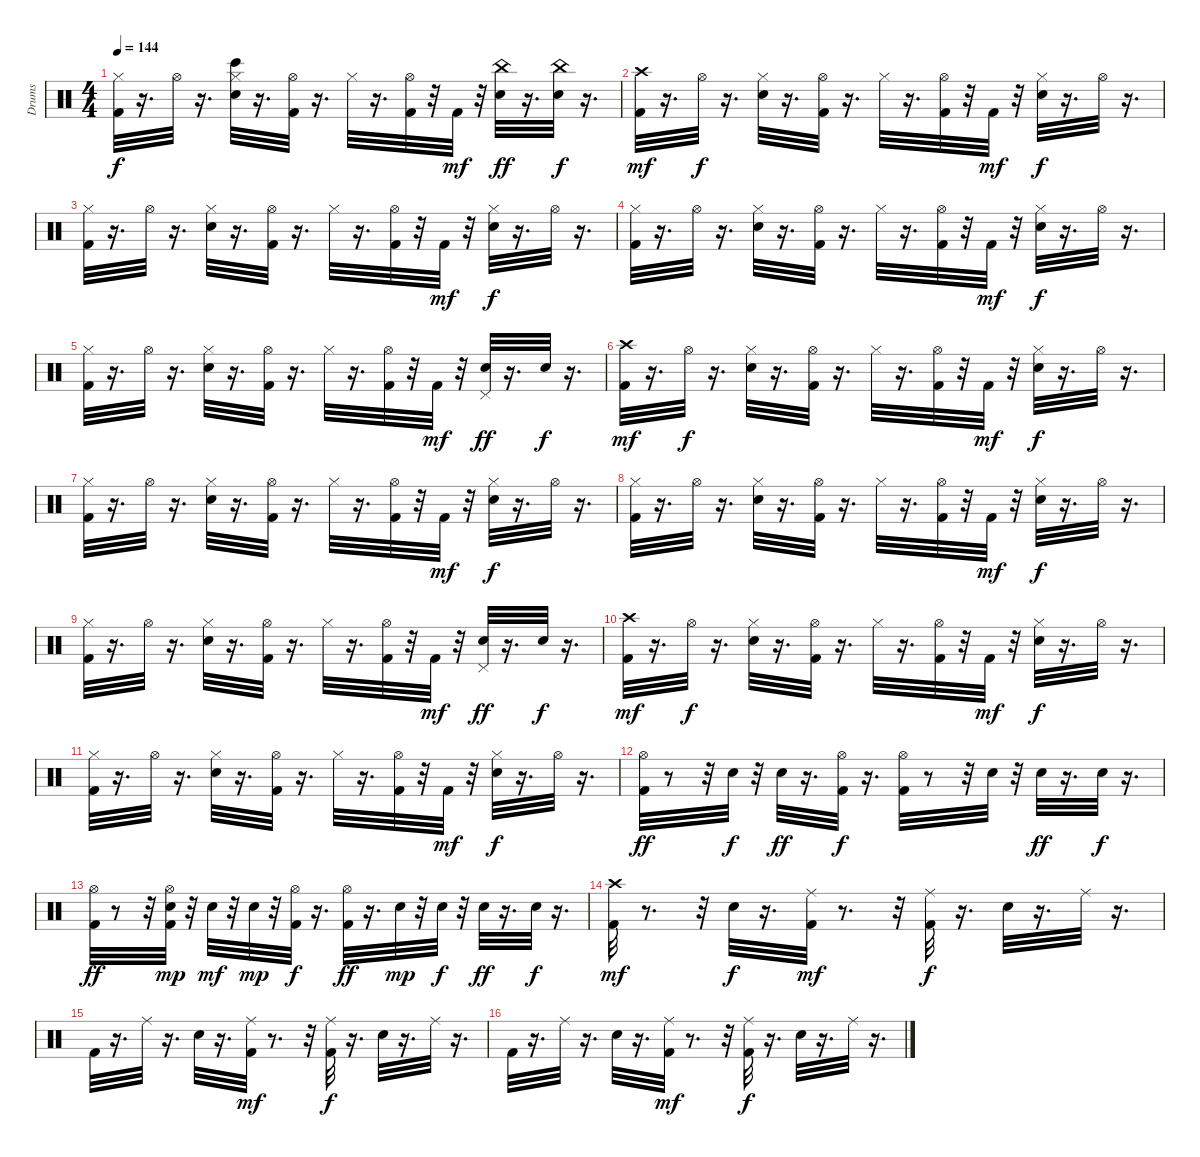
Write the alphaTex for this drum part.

\track ("Drums" "Drums") {instrument percussion}
\staff {score}
\articulation defaults
\ts (4 4)
\tempo 144
\clef neutral
\ks c
("Hi-Hat (closed)" "Kick (hit) 2").32{dy f} r.16{d} "Hi-Hat (open)".32 r.16{d} ("Bongo High (hit)" "Hi-Hat (closed)" "Snare (hit) 2").32 r.16{d} ("Hi-Hat (open)" "Kick (hit) 2").32 r.16{d} "Hi-Hat (closed)".32 r.16{d} ("Hi-Hat (open)" "Kick (hit) 2").32 r.32 "Kick (hit) 2".32{dy mf} r.32 ("China (hit)" "Snare (hit) 2").32{dy ff} r.16{d} ("China (hit)" "Snare (hit) 2").32{dy f} r.16{d} |
("Crash high (hit)" "Kick (hit) 2").32{dy mf} r.16{d} "Hi-Hat (open)".32{dy f} r.16{d} ("Hi-Hat (closed)" "Snare (hit) 2").32 r.16{d} ("Hi-Hat (open)" "Kick (hit) 2").32 r.16{d} "Hi-Hat (closed)".32 r.16{d} ("Kick (hit) 2" "Hi-Hat (open)").32 r.32 "Kick (hit) 2".32{dy mf} r.32 ("Hi-Hat (closed)" "Snare (hit) 2").32{dy f} r.16{d} "Hi-Hat (open)".32 r.16{d} |
("Kick (hit) 2" "Hi-Hat (closed)").32 r.16{d} "Hi-Hat (open)".32 r.16{d} ("Hi-Hat (closed)" "Snare (hit) 2").32 r.16{d} ("Kick (hit) 2" "Hi-Hat (open)").32 r.16{d} "Hi-Hat (closed)".32 r.16{d} ("Kick (hit) 2" "Hi-Hat (open)").32 r.32 "Kick (hit) 2".32{dy mf} r.32 ("Hi-Hat (closed)" "Snare (hit) 2").32{dy f} r.16{d} "Hi-Hat (open)".32 r.16{d} |
("Hi-Hat (closed)" "Kick (hit) 2").32 r.16{d} "Hi-Hat (open)".32 r.16{d} ("Hi-Hat (closed)" "Snare (hit) 2").32 r.16{d} ("Hi-Hat (open)" "Kick (hit) 2").32 r.16{d} "Hi-Hat (closed)".32 r.16{d} ("Kick (hit) 2" "Hi-Hat (open)").32 r.32 "Kick (hit) 2".32{dy mf} r.32 ("Snare (hit) 2" "Hi-Hat (closed)").32{dy f} r.16{d} "Hi-Hat (open)".32 r.16{d} |
("Hi-Hat (closed)" "Kick (hit) 2").32 r.16{d} "Hi-Hat (open)".32 r.16{d} ("Hi-Hat (closed)" "Snare (hit) 2").32 r.16{d} ("Hi-Hat (open)" "Kick (hit) 2").32 r.16{d} "Hi-Hat (closed)".32 r.16{d} ("Hi-Hat (open)" "Kick (hit) 2").32 r.32 "Kick (hit) 2".32{dy mf} r.32 ("Pedal Hi-Hat (hit)" "Snare (hit) 2").32{dy ff} r.16{d} "Snare (hit) 2".32{dy f} r.16{d} |
("Crash high (hit)" "Kick (hit) 2").32{dy mf} r.16{d} "Hi-Hat (open)".32{dy f} r.16{d} ("Hi-Hat (closed)" "Snare (hit) 2").32 r.16{d} ("Hi-Hat (open)" "Kick (hit) 2").32 r.16{d} "Hi-Hat (closed)".32 r.16{d} ("Kick (hit) 2" "Hi-Hat (open)").32 r.32 "Kick (hit) 2".32{dy mf} r.32 ("Hi-Hat (closed)" "Snare (hit) 2").32{dy f} r.16{d} "Hi-Hat (open)".32 r.16{d} |
("Kick (hit) 2" "Hi-Hat (closed)").32 r.16{d} "Hi-Hat (open)".32 r.16{d} ("Hi-Hat (closed)" "Snare (hit) 2").32 r.16{d} ("Kick (hit) 2" "Hi-Hat (open)").32 r.16{d} "Hi-Hat (closed)".32 r.16{d} ("Kick (hit) 2" "Hi-Hat (open)").32 r.32 "Kick (hit) 2".32{dy mf} r.32 ("Hi-Hat (closed)" "Snare (hit) 2").32{dy f} r.16{d} "Hi-Hat (open)".32 r.16{d} |
("Hi-Hat (closed)" "Kick (hit) 2").32 r.16{d} "Hi-Hat (open)".32 r.16{d} ("Hi-Hat (closed)" "Snare (hit) 2").32 r.16{d} ("Hi-Hat (open)" "Kick (hit) 2").32 r.16{d} "Hi-Hat (closed)".32 r.16{d} ("Kick (hit) 2" "Hi-Hat (open)").32 r.32 "Kick (hit) 2".32{dy mf} r.32 ("Snare (hit) 2" "Hi-Hat (closed)").32{dy f} r.16{d} "Hi-Hat (open)".32 r.16{d} |
("Hi-Hat (closed)" "Kick (hit) 2").32 r.16{d} "Hi-Hat (open)".32 r.16{d} ("Hi-Hat (closed)" "Snare (hit) 2").32 r.16{d} ("Hi-Hat (open)" "Kick (hit) 2").32 r.16{d} "Hi-Hat (closed)".32 r.16{d} ("Hi-Hat (open)" "Kick (hit) 2").32 r.32 "Kick (hit) 2".32{dy mf} r.32 ("Pedal Hi-Hat (hit)" "Snare (hit) 2").32{dy ff} r.16{d} "Snare (hit) 2".32{dy f} r.16{d} |
("Crash high (hit)" "Kick (hit) 2").32{dy mf} r.16{d} "Hi-Hat (open)".32{dy f} r.16{d} ("Hi-Hat (closed)" "Snare (hit) 2").32 r.16{d} ("Hi-Hat (open)" "Kick (hit) 2").32 r.16{d} "Hi-Hat (closed)".32 r.16{d} ("Kick (hit) 2" "Hi-Hat (open)").32 r.32 "Kick (hit) 2".32{dy mf} r.32 ("Hi-Hat (closed)" "Snare (hit) 2").32{dy f} r.16{d} "Hi-Hat (open)".32 r.16{d} |
("Kick (hit) 2" "Hi-Hat (closed)").32 r.16{d} "Hi-Hat (open)".32 r.16{d} ("Hi-Hat (closed)" "Snare (hit) 2").32 r.16{d} ("Kick (hit) 2" "Hi-Hat (open)").32 r.16{d} "Hi-Hat (closed)".32 r.16{d} ("Kick (hit) 2" "Hi-Hat (open)").32 r.32 "Kick (hit) 2".32{dy mf} r.32 ("Hi-Hat (closed)" "Snare (hit) 2").32{dy f} r.16{d} "Hi-Hat (open)".32 r.16{d} |
("Hi-Hat (open)" "Kick (hit) 2").32{dy ff} r.8 r.32 "Snare (hit) 2".32{dy f} r.32 "Snare (hit) 2".32{dy ff} r.16{d} ("Hi-Hat (open)" "Kick (hit) 2").32{dy f} r.16{d} ("Kick (hit) 2" "Hi-Hat (open)").32 r.8 r.32 "Snare (hit) 2".32 r.32 "Snare (hit) 2".32{dy ff} r.16{d} "Snare (hit) 2".32{dy f} r.16{d} |
("Hi-Hat (open)" "Kick (hit) 2").32{dy ff} r.8 r.32 ("Snare (hit) 2" "Kick (hit) 2" "Hi-Hat (open)").32{dy mp} r.32 "Snare (hit) 2".32{dy mf} r.32 "Snare (hit) 2".32{dy mp} r.32 ("Hi-Hat (open)" "Kick (hit) 2").32{dy f} r.16{d} ("Kick (hit) 2" "Hi-Hat (open)").32{dy ff} r.16{d} "Snare (hit) 2".32{dy mp} r.32 "Snare (hit) 2".32{dy f} r.32 "Snare (hit) 2".32{dy ff} r.16{d} "Snare (hit) 2".32{dy f} r.16{d} |
("Crash high (hit)" "Kick (hit) 2").32{dy mf} r.8{d} r.32 "Snare (hit) 2".32{dy f} r.16{d} ("Ride (middle)" "Kick (hit) 2").32{dy mf} r.8{d} r.32 ("Ride (middle)" "Kick (hit) 2").32{dy f} r.16{d} "Snare (hit) 2".32 r.16{d} "Ride (middle)".32 r.16{d} |
"Kick (hit) 2".32 r.16{d} "Ride (middle)".32 r.16{d} "Snare (hit) 2".32 r.16{d} ("Ride (middle)" "Kick (hit) 2").32{dy mf} r.8{d} r.32 ("Ride (middle)" "Kick (hit) 2").32{dy f} r.16{d} "Snare (hit) 2".32 r.16{d} "Ride (middle)".32 r.16{d} |
"Kick (hit) 2".32 r.16{d} "Ride (middle)".32 r.16{d} "Snare (hit) 2".32 r.16{d} ("Ride (middle)" "Kick (hit) 2").32{dy mf} r.8{d} r.32 ("Ride (middle)" "Kick (hit) 2").32{dy f} r.16{d} "Snare (hit) 2".32 r.16{d} "Ride (middle)".32 r.16{d}
